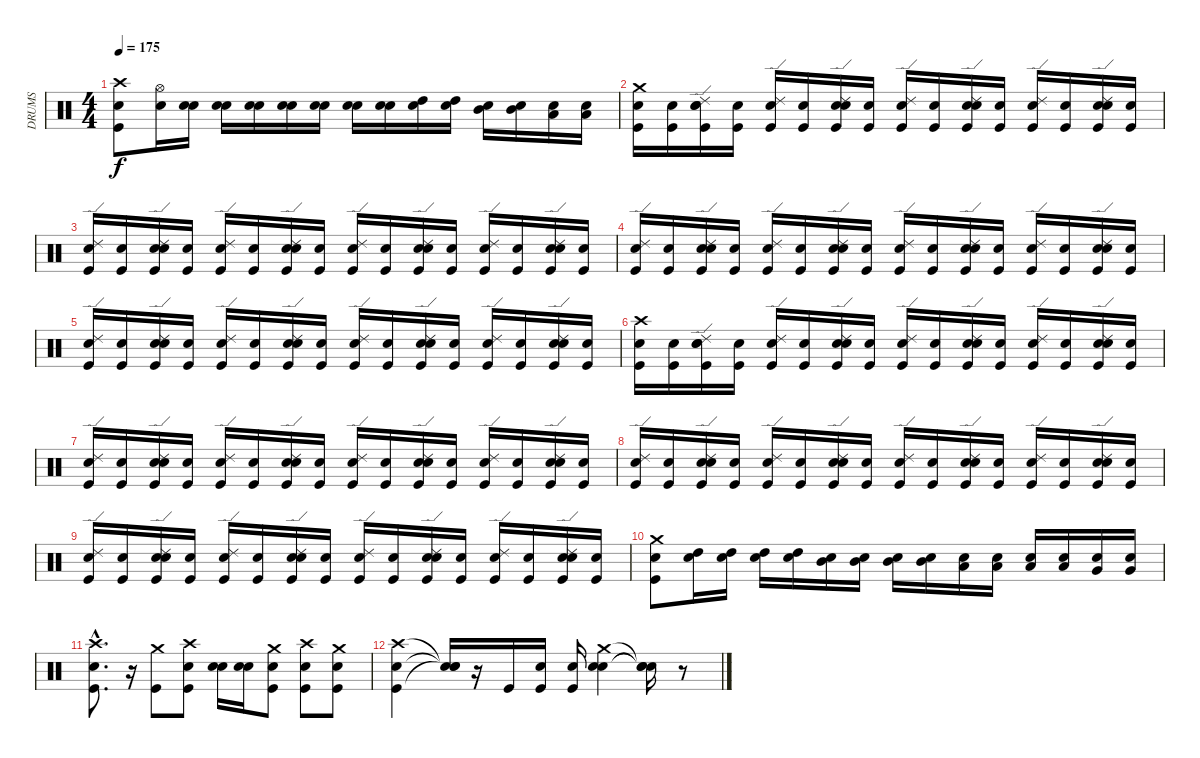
\track ("DRUMS" "DRUMS") {instrument percussion}
\staff {score}
\articulation defaults
\ts (4 4)
\tempo 175
\clef neutral
\ks c
("Snare (hit)" "Kick (hit)" "Crash high (hit)").8{dy f} ("Snare (hit)" "Hi-Hat (open)").16 ("Snare (hit)" "Snare (hit) 2").16 ("Snare (hit)" "Snare (hit) 2").16 ("Snare (hit)" "Snare (hit) 2").16 ("Snare (hit)" "Snare (hit) 2").16 ("Snare (hit)" "Snare (hit) 2").16 ("Snare (hit)" "Snare (hit) 2").16 ("Snare (hit)" "Snare (hit) 2").16 ("Snare (hit)" "High Tom (hit)").16 ("Snare (hit)" "High Tom (hit)").16 ("Snare (hit)" "Mid Tom (hit)").16 ("Snare (hit)" "Mid Tom (hit)").16 ("Snare (hit)" "Low Tom (hit)").16 ("Snare (hit)" "Low Tom (hit)").16 |
("Snare (hit)" "Crash medium (hit)" "Kick (hit)").16 ("Snare (hit)" "Kick (hit)").16 ("Snare (hit)" "Ride (edge) 2" "Snare (hit) 2" "Kick (hit)").16 ("Snare (hit)" "Kick (hit)").16 ("Snare (hit)" "Ride (edge) 2" "Kick (hit)").16 ("Snare (hit)" "Kick (hit)").16 ("Snare (hit)" "Ride (edge) 2" "Snare (hit) 2" "Kick (hit)").16 ("Snare (hit)" "Kick (hit)").16 ("Snare (hit)" "Ride (edge) 2" "Kick (hit)").16 ("Snare (hit)" "Kick (hit)").16 ("Snare (hit)" "Ride (edge) 2" "Snare (hit) 2" "Kick (hit)").16 ("Snare (hit)" "Kick (hit)").16 ("Snare (hit)" "Ride (edge) 2" "Kick (hit)").16 ("Snare (hit)" "Kick (hit)").16 ("Snare (hit)" "Ride (edge) 2" "Snare (hit) 2" "Kick (hit)").16 ("Snare (hit)" "Kick (hit)").16 |
("Snare (hit)" "Ride (edge) 2" "Kick (hit)").16 ("Snare (hit)" "Kick (hit)").16 ("Snare (hit)" "Ride (edge) 2" "Snare (hit) 2" "Kick (hit)").16 ("Snare (hit)" "Kick (hit)").16 ("Snare (hit)" "Ride (edge) 2" "Kick (hit)").16 ("Snare (hit)" "Kick (hit)").16 ("Snare (hit)" "Ride (edge) 2" "Snare (hit) 2" "Kick (hit)").16 ("Snare (hit)" "Kick (hit)").16 ("Snare (hit)" "Ride (edge) 2" "Kick (hit)").16 ("Snare (hit)" "Kick (hit)").16 ("Snare (hit)" "Ride (edge) 2" "Snare (hit) 2" "Kick (hit)").16 ("Snare (hit)" "Kick (hit)").16 ("Snare (hit)" "Ride (edge) 2" "Kick (hit)").16 ("Snare (hit)" "Kick (hit)").16 ("Snare (hit)" "Ride (edge) 2" "Snare (hit) 2" "Kick (hit)").16 ("Snare (hit)" "Kick (hit)").16 |
("Snare (hit)" "Ride (edge) 2" "Kick (hit)").16 ("Snare (hit)" "Kick (hit)").16 ("Snare (hit)" "Ride (edge) 2" "Snare (hit) 2" "Kick (hit)").16 ("Snare (hit)" "Kick (hit)").16 ("Snare (hit)" "Ride (edge) 2" "Kick (hit)").16 ("Snare (hit)" "Kick (hit)").16 ("Snare (hit)" "Ride (edge) 2" "Snare (hit) 2" "Kick (hit)").16 ("Snare (hit)" "Kick (hit)").16 ("Snare (hit)" "Ride (edge) 2" "Kick (hit)").16 ("Snare (hit)" "Kick (hit)").16 ("Snare (hit)" "Ride (edge) 2" "Snare (hit) 2" "Kick (hit)").16 ("Snare (hit)" "Kick (hit)").16 ("Snare (hit)" "Ride (edge) 2" "Kick (hit)").16 ("Snare (hit)" "Kick (hit)").16 ("Snare (hit)" "Ride (edge) 2" "Snare (hit) 2" "Kick (hit)").16 ("Snare (hit)" "Kick (hit)").16 |
("Snare (hit)" "Ride (edge) 2" "Kick (hit)").16 ("Snare (hit)" "Kick (hit)").16 ("Snare (hit)" "Ride (edge) 2" "Snare (hit) 2" "Kick (hit)").16 ("Snare (hit)" "Kick (hit)").16 ("Snare (hit)" "Ride (edge) 2" "Kick (hit)").16 ("Snare (hit)" "Kick (hit)").16 ("Snare (hit)" "Ride (edge) 2" "Snare (hit) 2" "Kick (hit)").16 ("Snare (hit)" "Kick (hit)").16 ("Snare (hit)" "Ride (edge) 2" "Kick (hit)").16 ("Snare (hit)" "Kick (hit)").16 ("Snare (hit)" "Ride (edge) 2" "Snare (hit) 2" "Kick (hit)").16 ("Snare (hit)" "Kick (hit)").16 ("Snare (hit)" "Ride (edge) 2" "Kick (hit)").16 ("Snare (hit)" "Kick (hit)").16 ("Snare (hit)" "Ride (edge) 2" "Snare (hit) 2" "Kick (hit)").16 ("Snare (hit)" "Kick (hit)").16 |
("Snare (hit)" "Kick (hit)" "Crash high (hit)").16 ("Snare (hit)" "Kick (hit)").16 ("Snare (hit)" "Kick (hit)" "Snare (hit) 2" "Ride (edge) 2").16 ("Snare (hit)" "Kick (hit)").16 ("Snare (hit)" "Kick (hit)" "Ride (edge) 2").16 ("Snare (hit)" "Kick (hit)").16 ("Snare (hit)" "Kick (hit)" "Snare (hit) 2" "Ride (edge) 2").16 ("Snare (hit)" "Kick (hit)").16 ("Snare (hit)" "Kick (hit)" "Ride (edge) 2").16 ("Snare (hit)" "Kick (hit)").16 ("Snare (hit)" "Kick (hit)" "Snare (hit) 2" "Ride (edge) 2").16 ("Snare (hit)" "Kick (hit)").16 ("Snare (hit)" "Kick (hit)" "Ride (edge) 2").16 ("Snare (hit)" "Kick (hit)").16 ("Snare (hit)" "Kick (hit)" "Snare (hit) 2" "Ride (edge) 2").16 ("Snare (hit)" "Kick (hit)").16 |
("Snare (hit)" "Kick (hit)" "Ride (edge) 2").16 ("Snare (hit)" "Kick (hit)").16 ("Snare (hit)" "Kick (hit)" "Snare (hit) 2" "Ride (edge) 2").16 ("Snare (hit)" "Kick (hit)").16 ("Snare (hit)" "Kick (hit)" "Ride (edge) 2").16 ("Snare (hit)" "Kick (hit)").16 ("Snare (hit)" "Kick (hit)" "Snare (hit) 2" "Ride (edge) 2").16 ("Snare (hit)" "Kick (hit)").16 ("Snare (hit)" "Kick (hit)" "Ride (edge) 2").16 ("Snare (hit)" "Kick (hit)").16 ("Snare (hit)" "Kick (hit)" "Snare (hit) 2" "Ride (edge) 2").16 ("Snare (hit)" "Kick (hit)").16 ("Snare (hit)" "Kick (hit)" "Ride (edge) 2").16 ("Snare (hit)" "Kick (hit)").16 ("Snare (hit)" "Kick (hit)" "Snare (hit) 2" "Ride (edge) 2").16 ("Snare (hit)" "Kick (hit)").16 |
("Snare (hit)" "Kick (hit)" "Ride (edge) 2").16 ("Snare (hit)" "Kick (hit)").16 ("Snare (hit)" "Kick (hit)" "Snare (hit) 2" "Ride (edge) 2").16 ("Snare (hit)" "Kick (hit)").16 ("Snare (hit)" "Kick (hit)" "Ride (edge) 2").16 ("Snare (hit)" "Kick (hit)").16 ("Snare (hit)" "Kick (hit)" "Snare (hit) 2" "Ride (edge) 2").16 ("Snare (hit)" "Kick (hit)").16 ("Snare (hit)" "Kick (hit)" "Ride (edge) 2").16 ("Snare (hit)" "Kick (hit)").16 ("Snare (hit)" "Kick (hit)" "Snare (hit) 2" "Ride (edge) 2").16 ("Snare (hit)" "Kick (hit)").16 ("Snare (hit)" "Kick (hit)" "Ride (edge) 2").16 ("Snare (hit)" "Kick (hit)").16 ("Snare (hit)" "Kick (hit)" "Snare (hit) 2" "Ride (edge) 2").16 ("Snare (hit)" "Kick (hit)").16 |
("Snare (hit)" "Kick (hit)" "Ride (edge) 2").16 ("Snare (hit)" "Kick (hit)").16 ("Snare (hit)" "Kick (hit)" "Snare (hit) 2" "Ride (edge) 2").16 ("Snare (hit)" "Kick (hit)").16 ("Snare (hit)" "Kick (hit)" "Ride (edge) 2").16 ("Snare (hit)" "Kick (hit)").16 ("Snare (hit)" "Kick (hit)" "Snare (hit) 2" "Ride (edge) 2").16 ("Snare (hit)" "Kick (hit)").16 ("Snare (hit)" "Kick (hit)" "Ride (edge) 2").16 ("Snare (hit)" "Kick (hit)").16 ("Snare (hit)" "Kick (hit)" "Snare (hit) 2" "Ride (edge) 2").16 ("Snare (hit)" "Kick (hit)").16 ("Snare (hit)" "Kick (hit)" "Ride (edge) 2").16 ("Snare (hit)" "Kick (hit)").16 ("Snare (hit)" "Kick (hit)" "Snare (hit) 2" "Ride (edge) 2").16 ("Snare (hit)" "Kick (hit)").16 |
("Snare (hit)" "Crash medium (hit)" "Kick (hit)").8 ("Snare (hit)" "High Tom (hit)").16 ("Snare (hit)" "High Tom (hit)").16 ("Snare (hit)" "High Tom (hit)").16 ("Snare (hit)" "High Tom (hit)").16 ("Snare (hit)" "Mid Tom (hit)").16 ("Snare (hit)" "Mid Tom (hit)").16 ("Snare (hit)" "Mid Tom (hit)").16 ("Snare (hit)" "Mid Tom (hit)").16 ("Snare (hit)" "Low Tom (hit)").16 ("Snare (hit)" "Low Tom (hit)").16 ("Snare (hit)" "Low Tom (hit)").16 ("Snare (hit)" "Low Tom (hit)").16 ("Snare (hit)" "Very Low Tom (hit)").16 ("Snare (hit)" "Very Low Tom (hit)").16 |
("Snare (hit)"{hac} "Crash high (hit)"{hac} "Kick (hit)"{hac}).8{d} r.16 ("Crash medium (hit)" "Kick (hit)").8 ("Snare (hit)" "Crash high (hit)" "Kick (hit)").8 ("Snare (hit)" "Snare (hit) 2").16 ("Snare (hit)" "Snare (hit) 2").16 ("Snare (hit)" "Crash medium (hit)" "Kick (hit)").8 ("Snare (hit)" "Crash high (hit)" "Kick (hit)").8 ("Snare (hit)" "Crash medium (hit)" "Kick (hit)").8 |
("Snare (hit)" "Crash high (hit)" "Kick (hit)").4 ("Snare (hit)"{t} "Snare (hit)"{t} "Snare (hit)"{t}).16 r.16 "Kick (hit)".16 ("Snare (hit)" "Kick (hit)").16 ("Snare (hit)" "Kick (hit)").16 ("Snare (hit)" "Crash medium (hit)" "Snare (hit) 2").4 ("Snare (hit)"{t} "Snare (hit)"{t} "Snare (hit)"{t}).16 r.8
